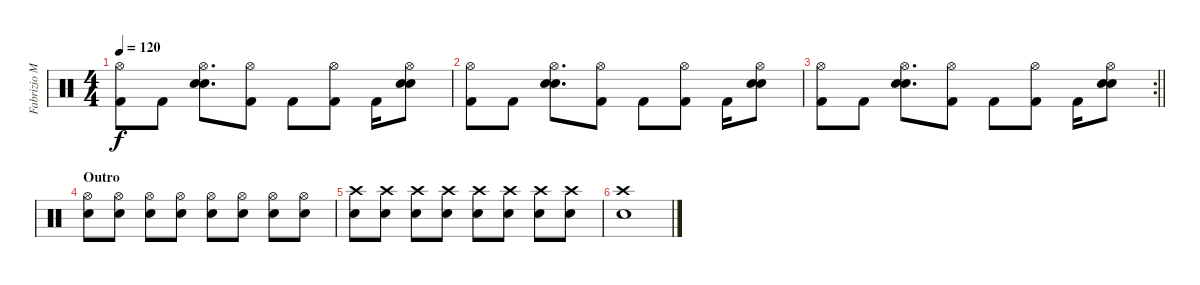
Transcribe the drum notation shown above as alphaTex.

\track ("Fabrizio Moretti" "Fabrizio M") {instrument percussion}
\staff {score}
\articulation defaults
\ts (4 4)
\tempo 120
\clef neutral
\ks c
("Hi-Hat (open)" "Kick (hit) 2").8{dy f} "Kick (hit) 2".8 ("Hand Clap (hit)" "Hi-Hat (open)" "Electric Snare (hit)").8{d} ("Hi-Hat (open)" "Kick (hit) 2").8 "Kick (hit) 2".8 ("Hi-Hat (open)" "Kick (hit) 2").8 "Kick (hit) 2".16 ("Hand Clap (hit)" "Hi-Hat (open)" "Electric Snare (hit)").8 |
("Hi-Hat (open)" "Kick (hit) 2").8 "Kick (hit) 2".8 ("Hand Clap (hit)" "Hi-Hat (open)" "Electric Snare (hit)").8{d} ("Hi-Hat (open)" "Kick (hit) 2").8 "Kick (hit) 2".8 ("Hi-Hat (open)" "Kick (hit) 2").8 "Kick (hit) 2".16 ("Hand Clap (hit)" "Hi-Hat (open)" "Electric Snare (hit)").8 |
\rc 2
\barLineRight lightlight
("Hi-Hat (open)" "Kick (hit) 2").8 "Kick (hit) 2".8 ("Hand Clap (hit)" "Hi-Hat (open)" "Electric Snare (hit)").8{d} ("Hi-Hat (open)" "Kick (hit) 2").8 "Kick (hit) 2".8 ("Hi-Hat (open)" "Kick (hit) 2").8 "Kick (hit) 2".16 ("Hand Clap (hit)" "Hi-Hat (open)" "Electric Snare (hit)").8 |
\section ("" "Outro")
("Hi-Hat (open)" "Electric Snare (hit)").8 ("Hi-Hat (open)" "Electric Snare (hit)").8 ("Hi-Hat (open)" "Electric Snare (hit)").8 ("Hi-Hat (open)" "Electric Snare (hit)").8 ("Hi-Hat (open)" "Electric Snare (hit)").8 ("Hi-Hat (open)" "Electric Snare (hit)").8 ("Hi-Hat (open)" "Electric Snare (hit)").8 ("Hi-Hat (open)" "Electric Snare (hit)").8 |
("Crash high (hit)" "Electric Snare (hit)").8 ("Crash high (hit)" "Electric Snare (hit)").8 ("Crash high (hit)" "Electric Snare (hit)").8 ("Crash high (hit)" "Electric Snare (hit)").8 ("Crash high (hit)" "Electric Snare (hit)").8 ("Crash high (hit)" "Electric Snare (hit)").8 ("Crash high (hit)" "Electric Snare (hit)").8 ("Crash high (hit)" "Electric Snare (hit)").8 |
("Crash high (hit)" "Electric Snare (hit)").1
